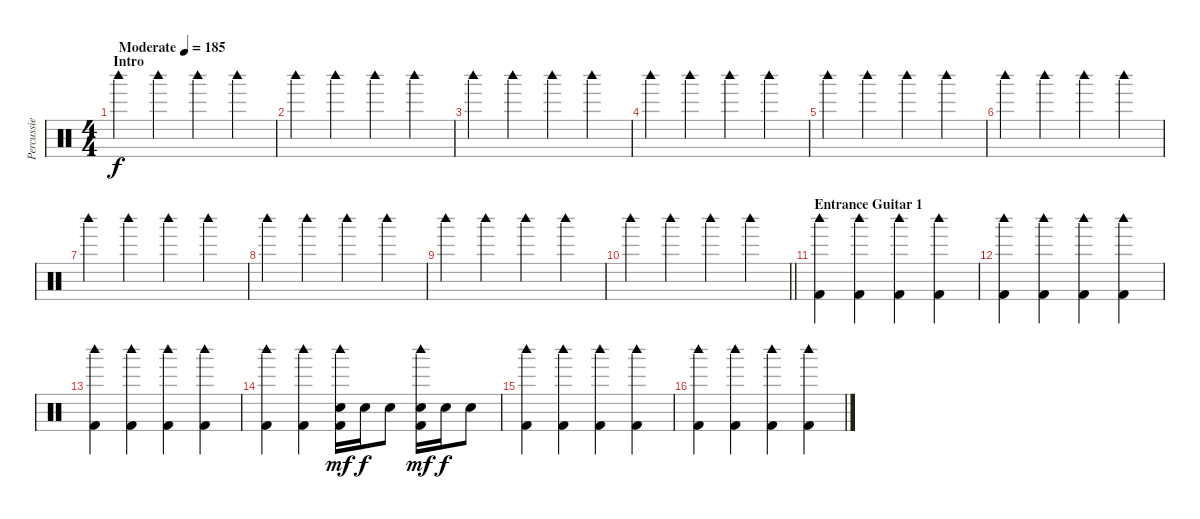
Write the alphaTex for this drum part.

\track ("Percussie" "Percussie") {instrument percussion}
\staff {score}
\articulation defaults
\ts (4 4)
\section ("" "Intro")
\tempo (185 "Moderate")
\clef neutral
\ks c "Woodblock high (hit)".4{dy f} "Woodblock high (hit)".4 "Woodblock high (hit)".4 "Woodblock high (hit)".4
|
"Woodblock high (hit)".4 "Woodblock high (hit)".4 "Woodblock high (hit)".4 "Woodblock high (hit)".4 |
"Woodblock high (hit)".4 "Woodblock high (hit)".4 "Woodblock high (hit)".4 "Woodblock high (hit)".4 |
"Woodblock high (hit)".4 "Woodblock high (hit)".4 "Woodblock high (hit)".4 "Woodblock high (hit)".4 |
"Woodblock high (hit)".4 "Woodblock high (hit)".4 "Woodblock high (hit)".4 "Woodblock high (hit)".4 |
"Woodblock high (hit)".4 "Woodblock high (hit)".4 "Woodblock high (hit)".4 "Woodblock high (hit)".4 |
"Woodblock high (hit)".4 "Woodblock high (hit)".4 "Woodblock high (hit)".4 "Woodblock high (hit)".4 |
"Woodblock high (hit)".4 "Woodblock high (hit)".4 "Woodblock high (hit)".4 "Woodblock high (hit)".4 |
"Woodblock high (hit)".4 "Woodblock high (hit)".4 "Woodblock high (hit)".4 "Woodblock high (hit)".4 |
\barLineRight lightlight "Woodblock high (hit)".4 "Woodblock high (hit)".4 "Woodblock high (hit)".4 "Woodblock high (hit)".4
|
\section ("" "Entrance Guitar 1")
("Woodblock high (hit)" "Kick (hit) 2").4 ("Woodblock high (hit)" "Kick (hit) 2").4 ("Woodblock high (hit)" "Kick (hit) 2").4 ("Woodblock high (hit)" "Kick (hit) 2").4 |
("Woodblock high (hit)" "Kick (hit) 2").4 ("Woodblock high (hit)" "Kick (hit) 2").4 ("Woodblock high (hit)" "Kick (hit) 2").4 ("Woodblock high (hit)" "Kick (hit) 2").4 |
("Woodblock high (hit)" "Kick (hit) 2").4 ("Woodblock high (hit)" "Kick (hit) 2").4 ("Woodblock high (hit)" "Kick (hit) 2").4 ("Woodblock high (hit)" "Kick (hit) 2").4 |
("Woodblock high (hit)" "Kick (hit) 2").4 ("Woodblock high (hit)" "Kick (hit) 2").4 ("Woodblock high (hit)" "Electric Snare (hit)" "Kick (hit) 2").16{dy mf} "Electric Snare (hit)".16{dy f} "Electric Snare (hit)".8 ("Woodblock high (hit)" "Electric Snare (hit)" "Kick (hit) 2").16{dy mf} "Electric Snare (hit)".16{dy f} "Electric Snare (hit)".8 |
("Woodblock high (hit)" "Kick (hit) 2").4 ("Woodblock high (hit)" "Kick (hit) 2").4 ("Woodblock high (hit)" "Kick (hit) 2").4 ("Woodblock high (hit)" "Kick (hit) 2").4 |
("Woodblock high (hit)" "Kick (hit) 2").4 ("Woodblock high (hit)" "Kick (hit) 2").4 ("Woodblock high (hit)" "Kick (hit) 2").4 ("Woodblock high (hit)" "Kick (hit) 2").4
